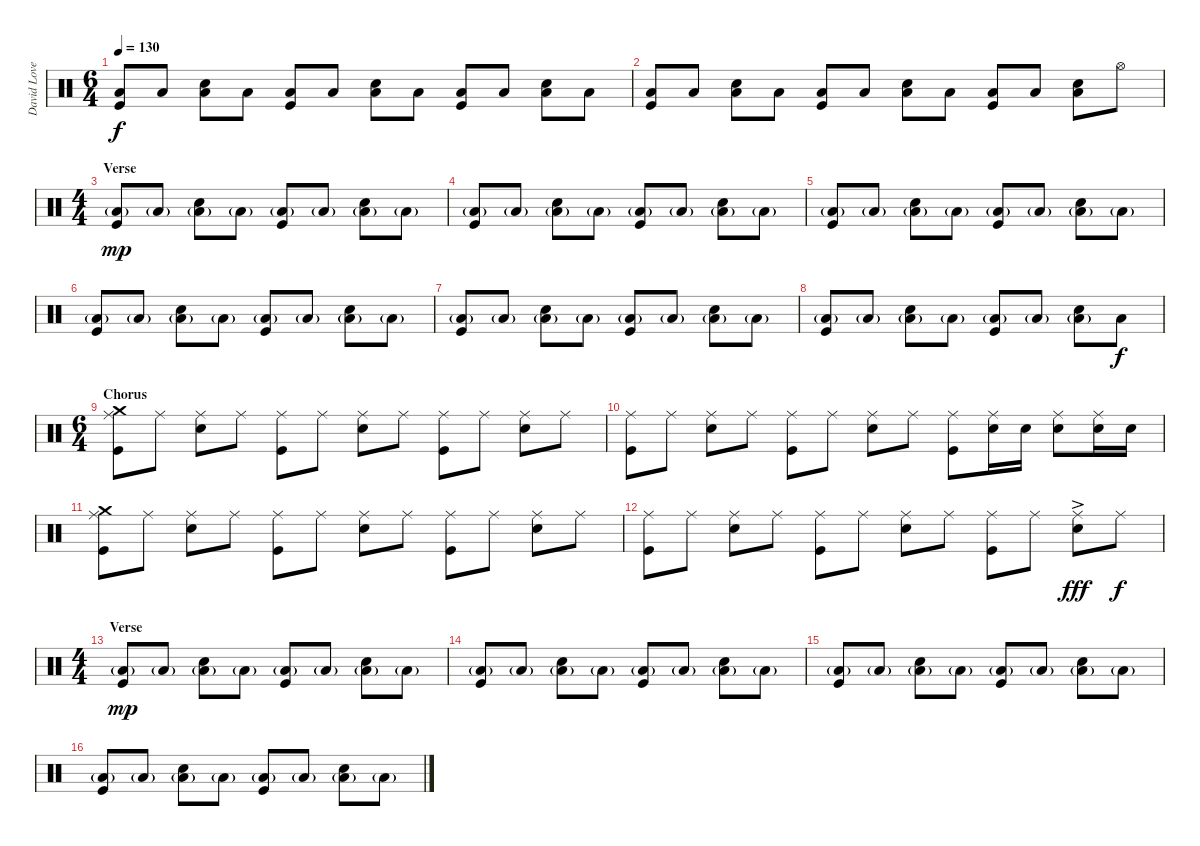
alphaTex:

\track ("David Lovering" "David Love") {instrument percussion}
\staff {score}
\articulation defaults
\ts (6 4)
\tempo 130
\clef neutral
\ks c
("Low Floor Tom (hit)" "Kick (hit)").8{dy f} "Low Floor Tom (hit)".8 ("Snare (hit) 2" "Low Floor Tom (hit)").8 "Low Floor Tom (hit)".8 ("Low Floor Tom (hit)" "Kick (hit)").8 "Low Floor Tom (hit)".8 ("Snare (hit) 2" "Low Floor Tom (hit)").8 "Low Floor Tom (hit)".8 ("Low Floor Tom (hit)" "Kick (hit)").8 "Low Floor Tom (hit)".8 ("Snare (hit) 2" "Low Floor Tom (hit)").8 "Low Floor Tom (hit)".8 |
("Low Floor Tom (hit)" "Kick (hit)").8 "Low Floor Tom (hit)".8 ("Snare (hit) 2" "Low Floor Tom (hit)").8 "Low Floor Tom (hit)".8 ("Low Floor Tom (hit)" "Kick (hit)").8 "Low Floor Tom (hit)".8 ("Snare (hit) 2" "Low Floor Tom (hit)").8 "Low Floor Tom (hit)".8 ("Low Floor Tom (hit)" "Kick (hit)").8 "Low Floor Tom (hit)".8 ("Snare (hit) 2" "Low Floor Tom (hit)").8 "Hi-Hat (open)".8 |
\ts (4 4)
\section ("" "Verse")
("Low Floor Tom (hit)"{g} "Kick (hit)").8{dy mp} "Low Floor Tom (hit)"{g}.8 ("Snare (hit) 2" "Low Floor Tom (hit)"{g}).8 "Low Floor Tom (hit)"{g}.8 ("Low Floor Tom (hit)"{g} "Kick (hit)").8 "Low Floor Tom (hit)"{g}.8 ("Snare (hit) 2" "Low Floor Tom (hit)"{g}).8 "Low Floor Tom (hit)"{g}.8 |
("Low Floor Tom (hit)"{g} "Kick (hit)").8 "Low Floor Tom (hit)"{g}.8 ("Snare (hit) 2" "Low Floor Tom (hit)"{g}).8 "Low Floor Tom (hit)"{g}.8 ("Low Floor Tom (hit)"{g} "Kick (hit)").8 "Low Floor Tom (hit)"{g}.8 ("Snare (hit) 2" "Low Floor Tom (hit)"{g}).8 "Low Floor Tom (hit)"{g}.8 |
("Low Floor Tom (hit)"{g} "Kick (hit)").8 "Low Floor Tom (hit)"{g}.8 ("Snare (hit) 2" "Low Floor Tom (hit)"{g}).8 "Low Floor Tom (hit)"{g}.8 ("Low Floor Tom (hit)"{g} "Kick (hit)").8 "Low Floor Tom (hit)"{g}.8 ("Snare (hit) 2" "Low Floor Tom (hit)"{g}).8 "Low Floor Tom (hit)"{g}.8 |
("Low Floor Tom (hit)"{g} "Kick (hit)").8 "Low Floor Tom (hit)"{g}.8 ("Snare (hit) 2" "Low Floor Tom (hit)"{g}).8 "Low Floor Tom (hit)"{g}.8 ("Low Floor Tom (hit)"{g} "Kick (hit)").8 "Low Floor Tom (hit)"{g}.8 ("Snare (hit) 2" "Low Floor Tom (hit)"{g}).8 "Low Floor Tom (hit)"{g}.8 |
("Low Floor Tom (hit)"{g} "Kick (hit)").8 "Low Floor Tom (hit)"{g}.8 ("Snare (hit) 2" "Low Floor Tom (hit)"{g}).8 "Low Floor Tom (hit)"{g}.8 ("Low Floor Tom (hit)"{g} "Kick (hit)").8 "Low Floor Tom (hit)"{g}.8 ("Snare (hit) 2" "Low Floor Tom (hit)"{g}).8 "Low Floor Tom (hit)"{g}.8 |
("Low Floor Tom (hit)"{g} "Kick (hit)").8 "Low Floor Tom (hit)"{g}.8 ("Snare (hit) 2" "Low Floor Tom (hit)"{g}).8 "Low Floor Tom (hit)"{g}.8 ("Low Floor Tom (hit)"{g} "Kick (hit)").8 "Low Floor Tom (hit)"{g}.8 ("Snare (hit) 2" "Low Floor Tom (hit)"{g}).8 "Low Floor Tom (hit)".8{dy f} |
\ts (6 4)
\section ("" "Chorus")
("Ride (middle)" "Crash medium (hit)" "Kick (hit)").8 "Ride (middle)".8 ("Ride (middle)" "Snare (hit) 2").8 "Ride (middle)".8 ("Ride (middle)" "Kick (hit)").8 "Ride (middle)".8 ("Ride (middle)" "Snare (hit) 2").8 "Ride (middle)".8 ("Ride (middle)" "Kick (hit)").8 "Ride (middle)".8 ("Ride (middle)" "Snare (hit) 2").8 "Ride (middle)".8 |
("Ride (middle)" "Kick (hit)").8 "Ride (middle)".8 ("Ride (middle)" "Snare (hit) 2").8 "Ride (middle)".8 ("Ride (middle)" "Kick (hit)").8 "Ride (middle)".8 ("Ride (middle)" "Snare (hit) 2").8 "Ride (middle)".8 ("Ride (middle)" "Kick (hit)").8 ("Ride (middle)" "Snare (hit) 2").16 "Snare (hit) 2".16 ("Ride (middle)" "Snare (hit) 2").8 ("Ride (middle)" "Snare (hit) 2").16 "Snare (hit) 2".16 |
("Ride (middle)" "Crash medium (hit)" "Kick (hit)").8 "Ride (middle)".8 ("Ride (middle)" "Snare (hit) 2").8 "Ride (middle)".8 ("Ride (middle)" "Kick (hit)").8 "Ride (middle)".8 ("Ride (middle)" "Snare (hit) 2").8 "Ride (middle)".8 ("Ride (middle)" "Kick (hit)").8 "Ride (middle)".8 ("Ride (middle)" "Snare (hit) 2").8 "Ride (middle)".8 |
("Ride (middle)" "Kick (hit)").8 "Ride (middle)".8 ("Ride (middle)" "Snare (hit) 2").8 "Ride (middle)".8 ("Ride (middle)" "Kick (hit)").8 "Ride (middle)".8 ("Ride (middle)" "Snare (hit) 2").8 "Ride (middle)".8 ("Ride (middle)" "Kick (hit)").8 "Ride (middle)".8 ("Ride (middle)" "Snare (hit) 2"{ac}).8{dy fff} "Ride (middle)".8{dy f} |
\ts (4 4)
\section ("" "Verse")
("Low Floor Tom (hit)"{g} "Kick (hit)").8{dy mp} "Low Floor Tom (hit)"{g}.8 ("Snare (hit) 2" "Low Floor Tom (hit)"{g}).8 "Low Floor Tom (hit)"{g}.8 ("Low Floor Tom (hit)"{g} "Kick (hit)").8 "Low Floor Tom (hit)"{g}.8 ("Snare (hit) 2" "Low Floor Tom (hit)"{g}).8 "Low Floor Tom (hit)"{g}.8 |
("Low Floor Tom (hit)"{g} "Kick (hit)").8 "Low Floor Tom (hit)"{g}.8 ("Snare (hit) 2" "Low Floor Tom (hit)"{g}).8 "Low Floor Tom (hit)"{g}.8 ("Low Floor Tom (hit)"{g} "Kick (hit)").8 "Low Floor Tom (hit)"{g}.8 ("Snare (hit) 2" "Low Floor Tom (hit)"{g}).8 "Low Floor Tom (hit)"{g}.8 |
("Low Floor Tom (hit)"{g} "Kick (hit)").8 "Low Floor Tom (hit)"{g}.8 ("Snare (hit) 2" "Low Floor Tom (hit)"{g}).8 "Low Floor Tom (hit)"{g}.8 ("Low Floor Tom (hit)"{g} "Kick (hit)").8 "Low Floor Tom (hit)"{g}.8 ("Snare (hit) 2" "Low Floor Tom (hit)"{g}).8 "Low Floor Tom (hit)"{g}.8 |
("Low Floor Tom (hit)"{g} "Kick (hit)").8 "Low Floor Tom (hit)"{g}.8 ("Snare (hit) 2" "Low Floor Tom (hit)"{g}).8 "Low Floor Tom (hit)"{g}.8 ("Low Floor Tom (hit)"{g} "Kick (hit)").8 "Low Floor Tom (hit)"{g}.8 ("Snare (hit) 2" "Low Floor Tom (hit)"{g}).8 "Low Floor Tom (hit)"{g}.8
